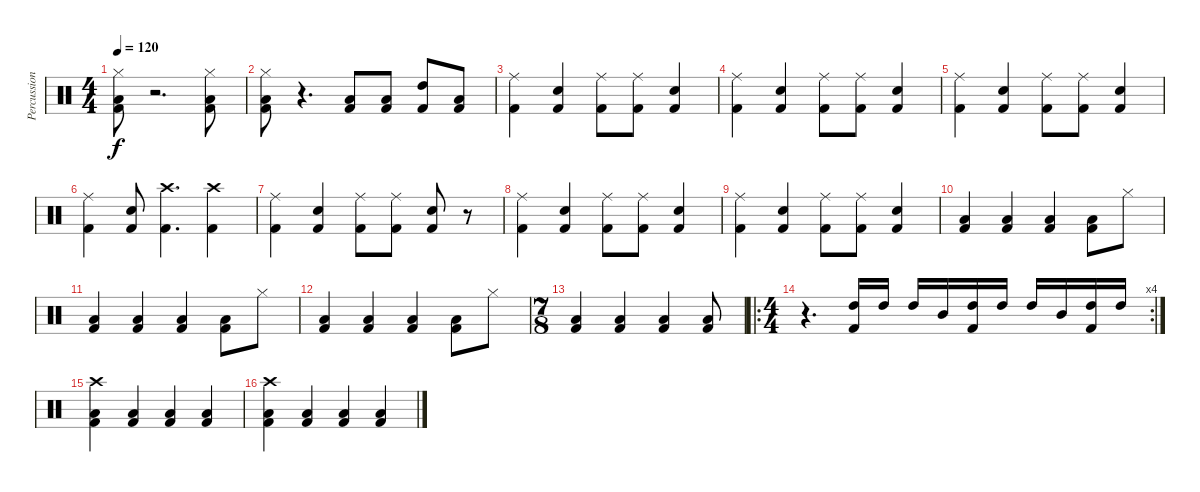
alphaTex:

\track ("Percussion" "Percussion") {instrument percussion}
\staff {score}
\articulation defaults
\ts (4 4)
\tempo 120
\clef neutral
\ks c
("Low Floor Tom (hit)" "Kick (hit) 2" "Hi-Hat (closed)").8{dy f} r.2{d} ("Low Floor Tom (hit)" "Kick (hit) 2" "Hi-Hat (closed)").8 |
("Low Floor Tom (hit)" "Kick (hit) 2" "Hi-Hat (closed)").8 r.4{d} ("Low Floor Tom (hit)" "Kick (hit) 2").8 ("Low Floor Tom (hit)" "Kick (hit) 2").8 ("High Tom (hit)" "Kick (hit) 2").8 ("Low Floor Tom (hit)" "Kick (hit) 2").8 |
("Kick (hit) 2" "Ride (middle)").4 ("Kick (hit) 2" "Snare (hit) 2").4 ("Kick (hit) 2" "Ride (middle)").8 ("Kick (hit) 2" "Ride (middle)").8 ("Kick (hit) 2" "Snare (hit) 2").4 |
("Kick (hit) 2" "Ride (middle)").4 ("Kick (hit) 2" "Snare (hit) 2").4 ("Kick (hit) 2" "Ride (middle)").8 ("Kick (hit) 2" "Ride (middle)").8 ("Kick (hit) 2" "Snare (hit) 2").4 |
("Kick (hit) 2" "Ride (middle)").4 ("Kick (hit) 2" "Snare (hit) 2").4 ("Kick (hit) 2" "Ride (middle)").8 ("Kick (hit) 2" "Ride (middle)").8 ("Kick (hit) 2" "Snare (hit) 2").4 |
("Kick (hit) 2" "Ride (middle)").4 ("Kick (hit) 2" "Snare (hit) 2").8 ("Kick (hit) 2" "Crash high (hit)").4{d} ("Kick (hit) 2" "Crash high (hit)").4 |
("Kick (hit) 2" "Ride (middle)").4 ("Kick (hit) 2" "Snare (hit) 2").4 ("Kick (hit) 2" "Ride (middle)").8 ("Kick (hit) 2" "Ride (middle)").8 ("Kick (hit) 2" "Snare (hit) 2").8 r.8 |
("Kick (hit) 2" "Ride (middle)").4 ("Kick (hit) 2" "Snare (hit) 2").4 ("Kick (hit) 2" "Ride (middle)").8 ("Kick (hit) 2" "Ride (middle)").8 ("Kick (hit) 2" "Snare (hit) 2").4 |
("Kick (hit) 2" "Ride (middle)").4 ("Kick (hit) 2" "Snare (hit) 2").4 ("Kick (hit) 2" "Ride (middle)").8 ("Kick (hit) 2" "Ride (middle)").8 ("Kick (hit) 2" "Snare (hit) 2").4 |
("Kick (hit) 2" "Low Floor Tom (hit)").4 ("Kick (hit) 2" "Low Floor Tom (hit)").4 ("Kick (hit) 2" "Low Floor Tom (hit)").4 ("Kick (hit) 2" "Low Floor Tom (hit)").8 "Hi-Hat (closed)".8 |
("Kick (hit) 2" "Low Floor Tom (hit)").4 ("Kick (hit) 2" "Low Floor Tom (hit)").4 ("Kick (hit) 2" "Low Floor Tom (hit)").4 ("Kick (hit) 2" "Low Floor Tom (hit)").8 "Hi-Hat (closed)".8 |
("Kick (hit) 2" "Low Floor Tom (hit)").4 ("Kick (hit) 2" "Low Floor Tom (hit)").4 ("Kick (hit) 2" "Low Floor Tom (hit)").4 ("Kick (hit) 2" "Low Floor Tom (hit)").8 "Hi-Hat (closed)".8 |
\ts (7 8)
("Kick (hit) 2" "Low Floor Tom (hit)").4 ("Kick (hit) 2" "Low Floor Tom (hit)").4 ("Kick (hit) 2" "Low Floor Tom (hit)").4 ("Kick (hit) 2" "Low Floor Tom (hit)").8 |
\ro
\rc 4
\ts (4 4)
r.4{d} ("High Tom (hit)" "Kick (hit) 2").16 "High Tom (hit)".16 "High Tom (hit)".16 "Mid Tom (hit)".16 ("High Tom (hit)" "Kick (hit) 2").16 "High Tom (hit)".16 "High Tom (hit)".16 "Mid Tom (hit)".16 ("High Tom (hit)" "Kick (hit) 2").16 "High Tom (hit)".16 |
("Kick (hit) 2" "Low Floor Tom (hit)" "Crash high (hit)").4 ("Kick (hit) 2" "Low Floor Tom (hit)").4 ("Kick (hit) 2" "Low Floor Tom (hit)").4 ("Kick (hit) 2" "Low Floor Tom (hit)").4 |
("Kick (hit) 2" "Low Floor Tom (hit)" "Crash high (hit)").4 ("Kick (hit) 2" "Low Floor Tom (hit)").4 ("Kick (hit) 2" "Low Floor Tom (hit)").4 ("Kick (hit) 2" "Low Floor Tom (hit)").4
